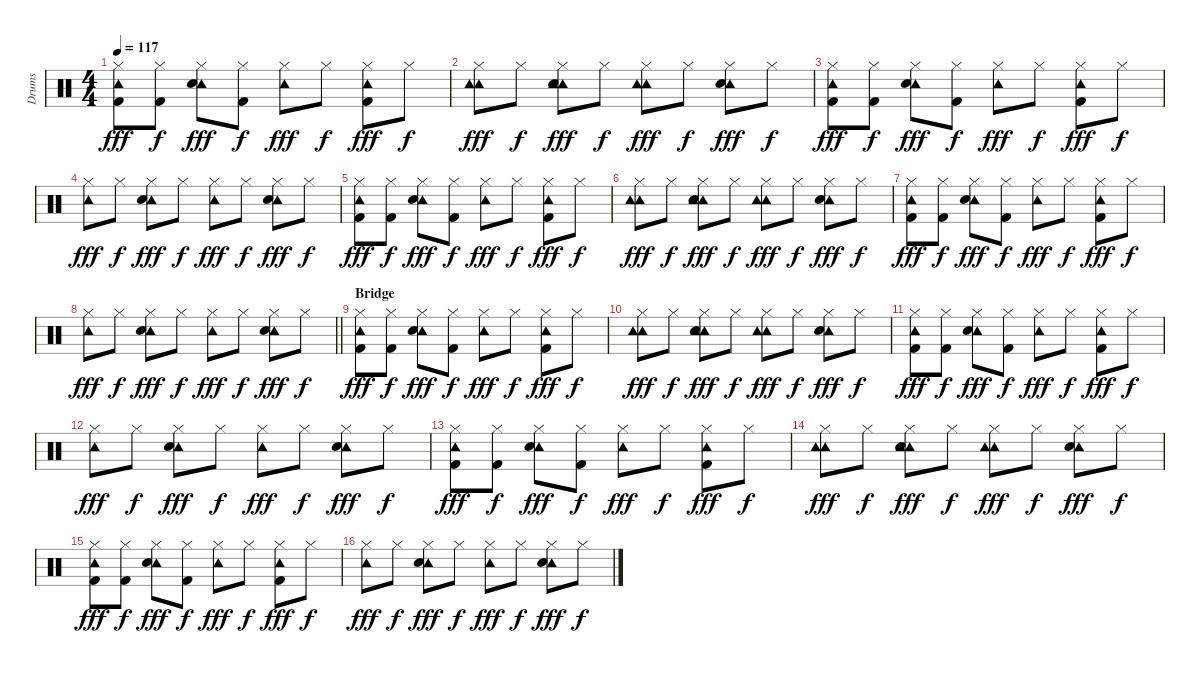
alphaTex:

\track ("Drums" "Drums") {instrument percussion}
\staff {score}
\articulation defaults
\ts (4 4)
\tempo 117
\clef neutral
\ks c
("Tambourine (hit)" "Hi-Hat (closed)" "Kick (hit) 2").8{dy fff} ("Hi-Hat (closed)" "Kick (hit) 2").8{dy f} ("Tambourine (hit)" "Hi-Hat (closed)" "Snare (hit) 2").8{dy fff} ("Hi-Hat (closed)" "Kick (hit) 2").8{dy f} ("Tambourine (hit)" "Hi-Hat (closed)").8{dy fff} "Hi-Hat (closed)".8{dy f} ("Tambourine (hit)" "Hi-Hat (closed)" "Kick (hit) 2").8{dy fff} "Hi-Hat (closed)".8{dy f} |
("Tambourine (hit)" "Tambourine (hit)" "Hi-Hat (closed)").8{dy fff} "Hi-Hat (closed)".8{dy f} ("Tambourine (hit)" "Tambourine (hit)" "Hi-Hat (closed)" "Snare (hit) 2").8{dy fff} "Hi-Hat (closed)".8{dy f} ("Tambourine (hit)" "Tambourine (hit)" "Hi-Hat (closed)").8{dy fff} "Hi-Hat (closed)".8{dy f} ("Tambourine (hit)" "Hi-Hat (closed)" "Snare (hit) 2").8{dy fff} "Hi-Hat (closed)".8{dy f} |
("Tambourine (hit)" "Hi-Hat (closed)" "Kick (hit) 2").8{dy fff} ("Hi-Hat (closed)" "Kick (hit) 2").8{dy f} ("Tambourine (hit)" "Hi-Hat (closed)" "Snare (hit) 2").8{dy fff} ("Hi-Hat (closed)" "Kick (hit) 2").8{dy f} ("Tambourine (hit)" "Hi-Hat (closed)").8{dy fff} "Hi-Hat (closed)".8{dy f} ("Tambourine (hit)" "Hi-Hat (closed)" "Kick (hit) 2").8{dy fff} "Hi-Hat (closed)".8{dy f} |
("Tambourine (hit)" "Hi-Hat (closed)").8{dy fff} "Hi-Hat (closed)".8{dy f} ("Tambourine (hit)" "Hi-Hat (closed)" "Snare (hit) 2").8{dy fff} "Hi-Hat (closed)".8{dy f} ("Tambourine (hit)" "Hi-Hat (closed)").8{dy fff} "Hi-Hat (closed)".8{dy f} ("Tambourine (hit)" "Hi-Hat (closed)" "Snare (hit) 2").8{dy fff} "Hi-Hat (closed)".8{dy f} |
("Tambourine (hit)" "Hi-Hat (closed)" "Kick (hit) 2").8{dy fff} ("Hi-Hat (closed)" "Kick (hit) 2").8{dy f} ("Tambourine (hit)" "Hi-Hat (closed)" "Snare (hit) 2").8{dy fff} ("Hi-Hat (closed)" "Kick (hit) 2").8{dy f} ("Tambourine (hit)" "Hi-Hat (closed)").8{dy fff} "Hi-Hat (closed)".8{dy f} ("Tambourine (hit)" "Hi-Hat (closed)" "Kick (hit) 2").8{dy fff} "Hi-Hat (closed)".8{dy f} |
("Tambourine (hit)" "Tambourine (hit)" "Hi-Hat (closed)").8{dy fff} "Hi-Hat (closed)".8{dy f} ("Tambourine (hit)" "Tambourine (hit)" "Hi-Hat (closed)" "Snare (hit) 2").8{dy fff} "Hi-Hat (closed)".8{dy f} ("Tambourine (hit)" "Tambourine (hit)" "Hi-Hat (closed)").8{dy fff} "Hi-Hat (closed)".8{dy f} ("Tambourine (hit)" "Hi-Hat (closed)" "Snare (hit) 2").8{dy fff} "Hi-Hat (closed)".8{dy f} |
("Tambourine (hit)" "Hi-Hat (closed)" "Kick (hit) 2").8{dy fff} ("Hi-Hat (closed)" "Kick (hit) 2").8{dy f} ("Tambourine (hit)" "Hi-Hat (closed)" "Snare (hit) 2").8{dy fff} ("Hi-Hat (closed)" "Kick (hit) 2").8{dy f} ("Tambourine (hit)" "Hi-Hat (closed)").8{dy fff} "Hi-Hat (closed)".8{dy f} ("Tambourine (hit)" "Hi-Hat (closed)" "Kick (hit) 2").8{dy fff} "Hi-Hat (closed)".8{dy f} |
\barLineRight lightlight
("Tambourine (hit)" "Hi-Hat (closed)").8{dy fff} "Hi-Hat (closed)".8{dy f} ("Tambourine (hit)" "Hi-Hat (closed)" "Snare (hit) 2").8{dy fff} "Hi-Hat (closed)".8{dy f} ("Tambourine (hit)" "Hi-Hat (closed)").8{dy fff} "Hi-Hat (closed)".8{dy f} ("Tambourine (hit)" "Hi-Hat (closed)" "Snare (hit) 2").8{dy fff} "Hi-Hat (closed)".8{dy f} |
\section ("" "Bridge")
("Tambourine (hit)" "Hi-Hat (closed)" "Kick (hit) 2").8{dy fff} ("Hi-Hat (closed)" "Kick (hit) 2").8{dy f} ("Tambourine (hit)" "Hi-Hat (closed)" "Snare (hit) 2").8{dy fff} ("Hi-Hat (closed)" "Kick (hit) 2").8{dy f} ("Tambourine (hit)" "Hi-Hat (closed)").8{dy fff} "Hi-Hat (closed)".8{dy f} ("Tambourine (hit)" "Hi-Hat (closed)" "Kick (hit) 2").8{dy fff} "Hi-Hat (closed)".8{dy f} |
("Tambourine (hit)" "Tambourine (hit)" "Hi-Hat (closed)").8{dy fff} "Hi-Hat (closed)".8{dy f} ("Tambourine (hit)" "Tambourine (hit)" "Hi-Hat (closed)" "Snare (hit) 2").8{dy fff} "Hi-Hat (closed)".8{dy f} ("Tambourine (hit)" "Tambourine (hit)" "Hi-Hat (closed)").8{dy fff} "Hi-Hat (closed)".8{dy f} ("Tambourine (hit)" "Hi-Hat (closed)" "Snare (hit) 2").8{dy fff} "Hi-Hat (closed)".8{dy f} |
("Tambourine (hit)" "Hi-Hat (closed)" "Kick (hit) 2").8{dy fff} ("Hi-Hat (closed)" "Kick (hit) 2").8{dy f} ("Tambourine (hit)" "Hi-Hat (closed)" "Snare (hit) 2").8{dy fff} ("Hi-Hat (closed)" "Kick (hit) 2").8{dy f} ("Tambourine (hit)" "Hi-Hat (closed)").8{dy fff} "Hi-Hat (closed)".8{dy f} ("Tambourine (hit)" "Hi-Hat (closed)" "Kick (hit) 2").8{dy fff} "Hi-Hat (closed)".8{dy f} |
("Tambourine (hit)" "Hi-Hat (closed)").8{dy fff} "Hi-Hat (closed)".8{dy f} ("Tambourine (hit)" "Hi-Hat (closed)" "Snare (hit) 2").8{dy fff} "Hi-Hat (closed)".8{dy f} ("Tambourine (hit)" "Hi-Hat (closed)").8{dy fff} "Hi-Hat (closed)".8{dy f} ("Tambourine (hit)" "Hi-Hat (closed)" "Snare (hit) 2").8{dy fff} "Hi-Hat (closed)".8{dy f} |
("Tambourine (hit)" "Hi-Hat (closed)" "Kick (hit) 2").8{dy fff} ("Hi-Hat (closed)" "Kick (hit) 2").8{dy f} ("Tambourine (hit)" "Hi-Hat (closed)" "Snare (hit) 2").8{dy fff} ("Hi-Hat (closed)" "Kick (hit) 2").8{dy f} ("Tambourine (hit)" "Hi-Hat (closed)").8{dy fff} "Hi-Hat (closed)".8{dy f} ("Tambourine (hit)" "Hi-Hat (closed)" "Kick (hit) 2").8{dy fff} "Hi-Hat (closed)".8{dy f} |
("Tambourine (hit)" "Tambourine (hit)" "Hi-Hat (closed)").8{dy fff} "Hi-Hat (closed)".8{dy f} ("Tambourine (hit)" "Tambourine (hit)" "Hi-Hat (closed)" "Snare (hit) 2").8{dy fff} "Hi-Hat (closed)".8{dy f} ("Tambourine (hit)" "Tambourine (hit)" "Hi-Hat (closed)").8{dy fff} "Hi-Hat (closed)".8{dy f} ("Tambourine (hit)" "Hi-Hat (closed)" "Snare (hit) 2").8{dy fff} "Hi-Hat (closed)".8{dy f} |
("Tambourine (hit)" "Hi-Hat (closed)" "Kick (hit) 2").8{dy fff} ("Hi-Hat (closed)" "Kick (hit) 2").8{dy f} ("Tambourine (hit)" "Hi-Hat (closed)" "Snare (hit) 2").8{dy fff} ("Hi-Hat (closed)" "Kick (hit) 2").8{dy f} ("Tambourine (hit)" "Hi-Hat (closed)").8{dy fff} "Hi-Hat (closed)".8{dy f} ("Tambourine (hit)" "Hi-Hat (closed)" "Kick (hit) 2").8{dy fff} "Hi-Hat (closed)".8{dy f} |
("Tambourine (hit)" "Hi-Hat (closed)").8{dy fff} "Hi-Hat (closed)".8{dy f} ("Tambourine (hit)" "Hi-Hat (closed)" "Snare (hit) 2").8{dy fff} "Hi-Hat (closed)".8{dy f} ("Tambourine (hit)" "Hi-Hat (closed)").8{dy fff} "Hi-Hat (closed)".8{dy f} ("Tambourine (hit)" "Hi-Hat (closed)" "Snare (hit) 2").8{dy fff} "Hi-Hat (closed)".8{dy f}
